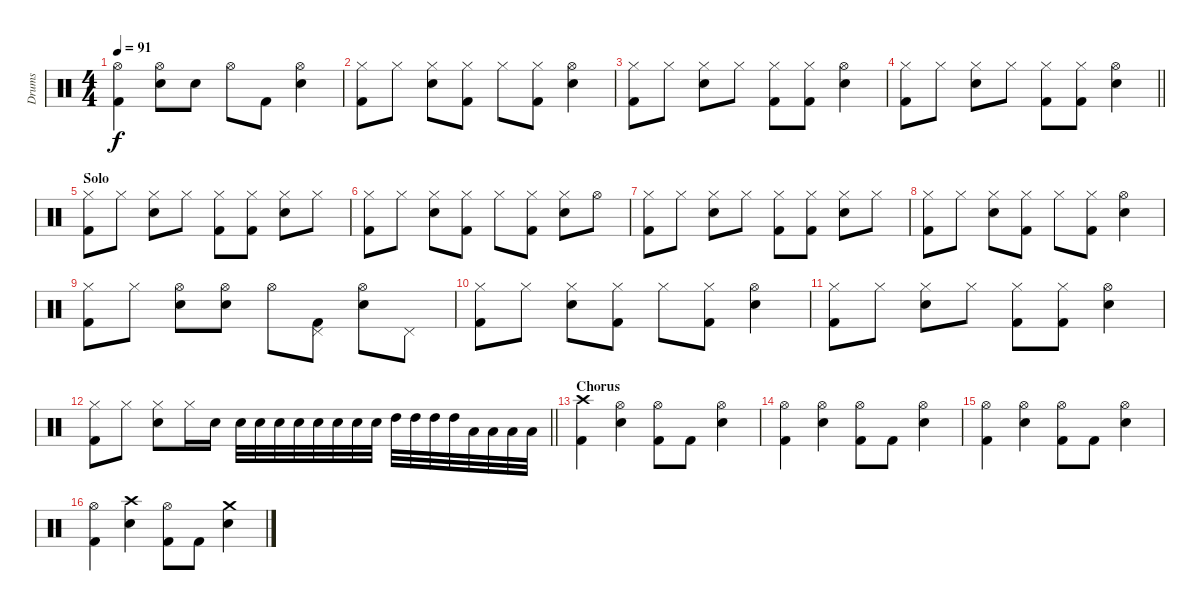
\track ("Drums" "Drums") {instrument percussion}
\staff {score}
\articulation defaults
\ts (4 4)
\tempo 91
\clef neutral
\ks c
("Hi-Hat (open)" "Kick (hit) 2").4{dy f} ("Hi-Hat (open)" "Snare (hit) 2").8 "Snare (hit) 2".8 "Hi-Hat (open)".8 "Kick (hit) 2".8 ("Hi-Hat (open)" "Snare (hit) 2").4 |
("Hi-Hat (closed)" "Kick (hit) 2").8 "Hi-Hat (closed)".8 ("Hi-Hat (closed)" "Snare (hit) 2").8 ("Hi-Hat (closed)" "Kick (hit) 2").8 "Hi-Hat (closed)".8 ("Hi-Hat (closed)" "Kick (hit) 2").8 ("Hi-Hat (open)" "Snare (hit) 2").4 |
("Hi-Hat (closed)" "Kick (hit) 2").8 "Hi-Hat (closed)".8 ("Hi-Hat (closed)" "Snare (hit) 2").8 "Hi-Hat (closed)".8 ("Hi-Hat (closed)" "Kick (hit) 2").8 ("Hi-Hat (closed)" "Kick (hit) 2").8 ("Hi-Hat (open)" "Snare (hit) 2").4 |
\barLineRight lightlight
("Hi-Hat (closed)" "Kick (hit) 2").8 "Hi-Hat (closed)".8 ("Hi-Hat (closed)" "Snare (hit) 2").8 "Hi-Hat (closed)".8 ("Hi-Hat (closed)" "Kick (hit) 2").8 ("Hi-Hat (closed)" "Kick (hit) 2").8 ("Hi-Hat (open)" "Snare (hit) 2").4 |
\section ("" "Solo")
("Hi-Hat (closed)" "Kick (hit) 2").8 "Hi-Hat (closed)".8 ("Hi-Hat (closed)" "Snare (hit) 2").8 "Hi-Hat (closed)".8 ("Hi-Hat (closed)" "Kick (hit) 2").8 ("Hi-Hat (closed)" "Kick (hit) 2").8 ("Hi-Hat (closed)" "Snare (hit) 2").8 "Hi-Hat (closed)".8 |
("Hi-Hat (closed)" "Kick (hit) 2").8 "Hi-Hat (closed)".8 ("Hi-Hat (closed)" "Snare (hit) 2").8 ("Hi-Hat (closed)" "Kick (hit) 2").8 "Hi-Hat (closed)".8 ("Hi-Hat (closed)" "Kick (hit) 2").8 ("Hi-Hat (closed)" "Snare (hit) 2").8 "Hi-Hat (open)".8 |
("Hi-Hat (closed)" "Kick (hit) 2").8 "Hi-Hat (closed)".8 ("Hi-Hat (closed)" "Snare (hit) 2").8 "Hi-Hat (closed)".8 ("Hi-Hat (closed)" "Kick (hit) 2").8 ("Hi-Hat (closed)" "Kick (hit) 2").8 ("Hi-Hat (closed)" "Snare (hit) 2").8 "Hi-Hat (closed)".8 |
("Hi-Hat (closed)" "Kick (hit) 2").8 "Hi-Hat (closed)".8 ("Hi-Hat (closed)" "Snare (hit) 2").8 ("Hi-Hat (closed)" "Kick (hit) 2").8 "Hi-Hat (closed)".8 ("Hi-Hat (closed)" "Kick (hit) 2").8 ("Hi-Hat (open)" "Snare (hit) 2").4 |
("Hi-Hat (closed)" "Kick (hit) 2").8 "Hi-Hat (closed)".8 ("Hi-Hat (open)" "Snare (hit) 2").8 ("Hi-Hat (open)" "Snare (hit) 2").8 "Hi-Hat (open)".8 ("Pedal Hi-Hat (hit)" "Kick (hit) 2").8 ("Hi-Hat (open)" "Snare (hit) 2").8 "Pedal Hi-Hat (hit)".8 |
("Hi-Hat (closed)" "Kick (hit) 2").8 "Hi-Hat (closed)".8 ("Hi-Hat (closed)" "Snare (hit) 2").8 ("Hi-Hat (closed)" "Kick (hit) 2").8 "Hi-Hat (closed)".8 ("Hi-Hat (closed)" "Kick (hit) 2").8 ("Hi-Hat (open)" "Snare (hit) 2").4 |
("Hi-Hat (closed)" "Kick (hit) 2").8 "Hi-Hat (closed)".8 ("Hi-Hat (closed)" "Snare (hit) 2").8 "Hi-Hat (closed)".8 ("Hi-Hat (closed)" "Kick (hit) 2").8 ("Hi-Hat (closed)" "Kick (hit) 2").8 ("Hi-Hat (open)" "Snare (hit) 2").4 |
\barLineRight lightlight
("Hi-Hat (closed)" "Kick (hit) 2").8 "Hi-Hat (closed)".8 ("Hi-Hat (closed)" "Snare (hit) 2").8 "Hi-Hat (closed)".16 "Snare (hit) 2".16 "Snare (hit) 2".32 "Snare (hit) 2".32 "Snare (hit) 2".32 "Snare (hit) 2".32 "Snare (hit) 2".32 "Snare (hit) 2".32 "Snare (hit) 2".32 "Snare (hit) 2".32 "High Tom (hit)".32 "High Tom (hit)".32 "High Tom (hit)".32 "High Tom (hit)".32 "Low Tom (hit)".32 "Low Tom (hit)".32 "Low Tom (hit)".32 "Low Tom (hit)".32 |
\section ("" "Chorus")
("Crash high (hit)" "Kick (hit) 2").4 ("Hi-Hat (open)" "Snare (hit) 2").4 ("Hi-Hat (open)" "Kick (hit) 2").8 "Kick (hit) 2".8 ("Hi-Hat (open)" "Snare (hit) 2").4 |
("Hi-Hat (open)" "Kick (hit) 2").4 ("Hi-Hat (open)" "Snare (hit) 2").4 ("Hi-Hat (open)" "Kick (hit) 2").8 "Kick (hit) 2".8 ("Hi-Hat (open)" "Snare (hit) 2").4 |
("Hi-Hat (open)" "Kick (hit) 2").4 ("Hi-Hat (open)" "Snare (hit) 2").4 ("Hi-Hat (open)" "Kick (hit) 2").8 "Kick (hit) 2".8 ("Hi-Hat (open)" "Snare (hit) 2").4 |
("Hi-Hat (open)" "Kick (hit) 2").4 ("Crash high (hit)" "Snare (hit) 2").4 ("Hi-Hat (open)" "Kick (hit) 2").8 "Kick (hit) 2".8 ("Crash medium (hit)" "Snare (hit) 2").4
